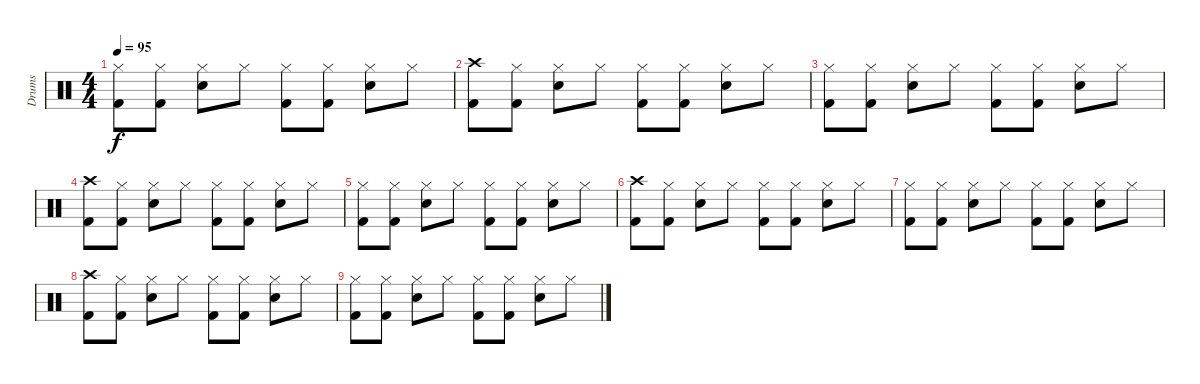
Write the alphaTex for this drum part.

\track ("Drums" "Drums") {instrument percussion}
\staff {score}
\articulation defaults
\ts (4 4)
\tempo 95
\clef neutral
\ks c
("Hi-Hat (closed)" "Kick (hit) 2").8{dy f} ("Hi-Hat (closed)" "Kick (hit) 2").8 ("Hi-Hat (closed)" "Electric Snare (hit)").8 "Hi-Hat (closed)".8 ("Hi-Hat (closed)" "Kick (hit) 2").8 ("Hi-Hat (closed)" "Kick (hit) 2").8 ("Hi-Hat (closed)" "Electric Snare (hit)").8 "Hi-Hat (closed)".8 |
("Crash high (hit)" "Kick (hit) 2").8{volume 11} ("Hi-Hat (closed)" "Kick (hit) 2").8 ("Hi-Hat (closed)" "Electric Snare (hit)").8 "Hi-Hat (closed)".8 ("Hi-Hat (closed)" "Kick (hit) 2").8 ("Hi-Hat (closed)" "Kick (hit) 2").8 ("Hi-Hat (closed)" "Electric Snare (hit)").8 "Hi-Hat (closed)".8 |
("Hi-Hat (closed)" "Kick (hit) 2").8 ("Hi-Hat (closed)" "Kick (hit) 2").8 ("Hi-Hat (closed)" "Electric Snare (hit)").8 "Hi-Hat (closed)".8 ("Hi-Hat (closed)" "Kick (hit) 2").8 ("Hi-Hat (closed)" "Kick (hit) 2").8 ("Hi-Hat (closed)" "Electric Snare (hit)").8 "Hi-Hat (closed)".8 |
("Crash high (hit)" "Kick (hit) 2").8{volume 11} ("Hi-Hat (closed)" "Kick (hit) 2").8 ("Hi-Hat (closed)" "Electric Snare (hit)").8 "Hi-Hat (closed)".8 ("Hi-Hat (closed)" "Kick (hit) 2").8 ("Hi-Hat (closed)" "Kick (hit) 2").8 ("Hi-Hat (closed)" "Electric Snare (hit)").8 "Hi-Hat (closed)".8 |
("Hi-Hat (closed)" "Kick (hit) 2").8 ("Hi-Hat (closed)" "Kick (hit) 2").8 ("Hi-Hat (closed)" "Electric Snare (hit)").8 "Hi-Hat (closed)".8 ("Hi-Hat (closed)" "Kick (hit) 2").8 ("Hi-Hat (closed)" "Kick (hit) 2").8 ("Hi-Hat (closed)" "Electric Snare (hit)").8 "Hi-Hat (closed)".8 |
("Crash high (hit)" "Kick (hit) 2").8{volume 9} ("Hi-Hat (closed)" "Kick (hit) 2").8 ("Hi-Hat (closed)" "Electric Snare (hit)").8 "Hi-Hat (closed)".8 ("Hi-Hat (closed)" "Kick (hit) 2").8 ("Hi-Hat (closed)" "Kick (hit) 2").8 ("Hi-Hat (closed)" "Electric Snare (hit)").8 "Hi-Hat (closed)".8 |
("Hi-Hat (closed)" "Kick (hit) 2").8 ("Hi-Hat (closed)" "Kick (hit) 2").8 ("Hi-Hat (closed)" "Electric Snare (hit)").8 "Hi-Hat (closed)".8 ("Hi-Hat (closed)" "Kick (hit) 2").8 ("Hi-Hat (closed)" "Kick (hit) 2").8 ("Hi-Hat (closed)" "Electric Snare (hit)").8 "Hi-Hat (closed)".8 |
("Crash high (hit)" "Kick (hit) 2").8{volume 9} ("Hi-Hat (closed)" "Kick (hit) 2").8 ("Hi-Hat (closed)" "Electric Snare (hit)").8 "Hi-Hat (closed)".8 ("Hi-Hat (closed)" "Kick (hit) 2").8 ("Hi-Hat (closed)" "Kick (hit) 2").8 ("Hi-Hat (closed)" "Electric Snare (hit)").8 "Hi-Hat (closed)".8 |
("Hi-Hat (closed)" "Kick (hit) 2").8 ("Hi-Hat (closed)" "Kick (hit) 2").8 ("Hi-Hat (closed)" "Electric Snare (hit)").8 "Hi-Hat (closed)".8 ("Hi-Hat (closed)" "Kick (hit) 2").8 ("Hi-Hat (closed)" "Kick (hit) 2").8 ("Hi-Hat (closed)" "Electric Snare (hit)").8 "Hi-Hat (closed)".8
